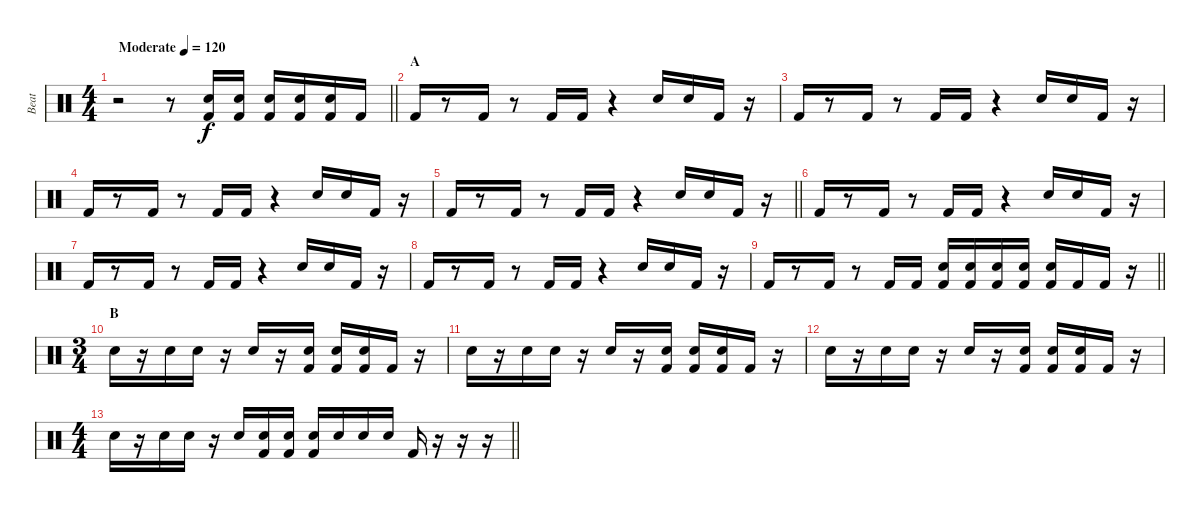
\track ("Beat" "Beat") {solo instrument percussion}
\staff {score}
\articulation defaults
\ts (4 4)
\tempo (120 "Moderate")
\clef neutral
\barLineRight lightlight
\ks c
r.2{dy f} r.8 ("Kick (hit) 2" "Snare (hit) 2").16 ("Snare (hit) 2" "Kick (hit) 2").16 ("Kick (hit) 2" "Snare (hit) 2").16 ("Snare (hit) 2" "Kick (hit) 2").16 ("Kick (hit) 2" "Snare (hit) 2").16 "Kick (hit) 2".16 |
\section ("" "A")
"Kick (hit) 2".16 r.8 "Kick (hit) 2".16 r.8 "Kick (hit) 2".16 "Kick (hit) 2".16 r.4 "Snare (hit) 2".16 "Snare (hit) 2".16 "Kick (hit) 2".16 r.16 |
"Kick (hit) 2".16 r.8 "Kick (hit) 2".16 r.8 "Kick (hit) 2".16 "Kick (hit) 2".16 r.4 "Snare (hit) 2".16 "Snare (hit) 2".16 "Kick (hit) 2".16 r.16 |
"Kick (hit) 2".16 r.8 "Kick (hit) 2".16 r.8 "Kick (hit) 2".16 "Kick (hit) 2".16 r.4 "Snare (hit) 2".16 "Snare (hit) 2".16 "Kick (hit) 2".16 r.16 |
\barLineRight lightlight "Kick (hit) 2".16
r.8 "Kick (hit) 2".16 r.8 "Kick (hit) 2".16 "Kick (hit) 2".16 r.4 "Snare (hit) 2".16 "Snare (hit) 2".16 "Kick (hit) 2".16 r.16 |
"Kick (hit) 2".16 r.8 "Kick (hit) 2".16 r.8 "Kick (hit) 2".16 "Kick (hit) 2".16 r.4 "Snare (hit) 2".16 "Snare (hit) 2".16 "Kick (hit) 2".16 r.16 |
"Kick (hit) 2".16 r.8 "Kick (hit) 2".16 r.8 "Kick (hit) 2".16 "Kick (hit) 2".16 r.4 "Snare (hit) 2".16 "Snare (hit) 2".16 "Kick (hit) 2".16 r.16 |
"Kick (hit) 2".16 r.8 "Kick (hit) 2".16 r.8 "Kick (hit) 2".16 "Kick (hit) 2".16 r.4 "Snare (hit) 2".16 "Snare (hit) 2".16 "Kick (hit) 2".16 r.16 |
\barLineRight lightlight "Kick (hit) 2".16
r.8 "Kick (hit) 2".16 r.8 "Kick (hit) 2".16 "Kick (hit) 2".16 ("Kick (hit) 2" "Snare (hit) 2").16 ("Snare (hit) 2" "Kick (hit) 2").16 ("Snare (hit) 2" "Kick (hit) 2").16 ("Kick (hit) 2" "Snare (hit) 2").16 ("Snare (hit) 2" "Kick (hit) 2").16 "Kick (hit) 2".16 "Kick (hit) 2".16 r.16 |
\ts (3 4)
\section ("" "B")
"Snare (hit) 2".16 r.16 "Snare (hit) 2".16 "Snare (hit) 2".16 r.16 "Snare (hit) 2".16 r.16 ("Kick (hit) 2" "Snare (hit) 2").16 ("Snare (hit) 2" "Kick (hit) 2").16 ("Snare (hit) 2" "Kick (hit) 2").16 "Kick (hit) 2".16 r.16 |
"Snare (hit) 2".16 r.16 "Snare (hit) 2".16 "Snare (hit) 2".16 r.16 "Snare (hit) 2".16 r.16 ("Kick (hit) 2" "Snare (hit) 2").16 ("Snare (hit) 2" "Kick (hit) 2").16 ("Snare (hit) 2" "Kick (hit) 2").16 "Kick (hit) 2".16 r.16 |
"Snare (hit) 2".16 r.16 "Snare (hit) 2".16 "Snare (hit) 2".16 r.16 "Snare (hit) 2".16 r.16 ("Kick (hit) 2" "Snare (hit) 2").16 ("Snare (hit) 2" "Kick (hit) 2").16 ("Snare (hit) 2" "Kick (hit) 2").16 "Kick (hit) 2".16 r.16 |
\ts (4 4)
\barLineRight lightlight "Snare (hit) 2".16
r.16 "Snare (hit) 2".16 "Snare (hit) 2".16 r.16 "Snare (hit) 2".16 ("Snare (hit) 2" "Kick (hit) 2").16 ("Snare (hit) 2" "Kick (hit) 2").16 ("Snare (hit) 2" "Kick (hit) 2").16 "Snare (hit) 2".16 "Snare (hit) 2".16 "Snare (hit) 2".16 "Kick (hit) 2".16 r.16 r.16 r.16
